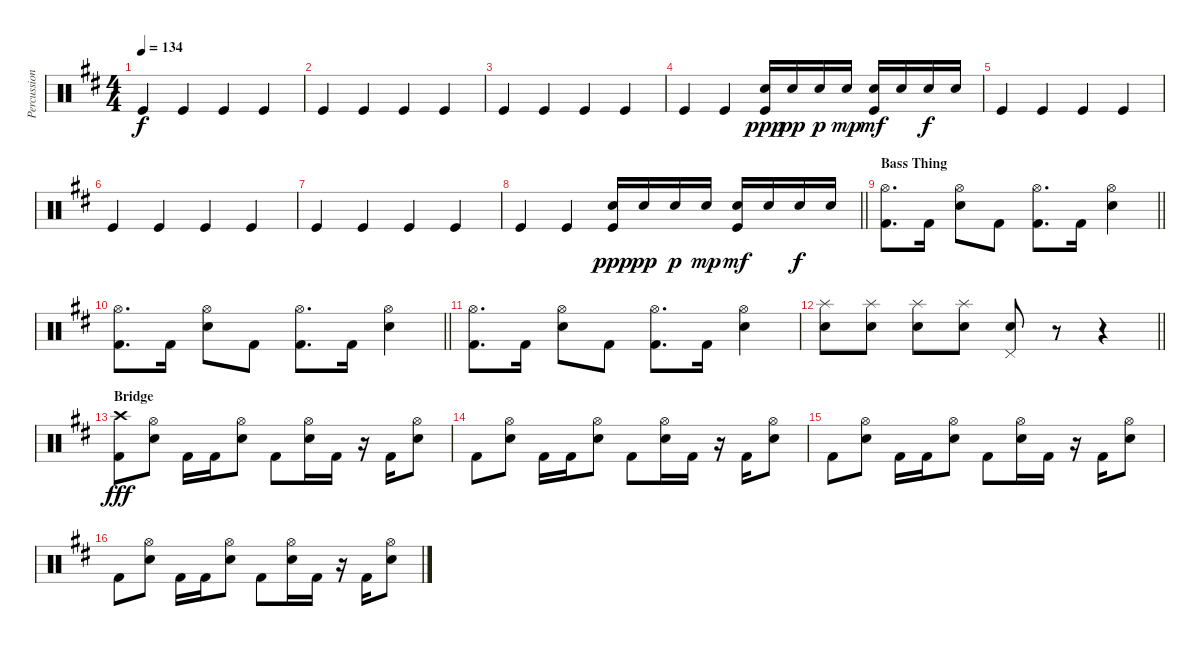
\track ("Percussion" "Percussion") {instrument percussion}
\staff {score}
\articulation defaults
\ts (4 4)
\tempo 134
\clef neutral
\ks bminor "Kick (hit)".4{dy f} "Kick (hit)".4 "Kick (hit)".4 "Kick (hit)".4
|
"Kick (hit)".4 "Kick (hit)".4 "Kick (hit)".4 "Kick (hit)".4 |
"Kick (hit)".4 "Kick (hit)".4 "Kick (hit)".4 "Kick (hit)".4 |
"Kick (hit)".4 "Kick (hit)".4 ("Snare (hit) 2" "Kick (hit)").16{dy ppp} "Snare (hit) 2".16{dy pp} "Snare (hit) 2".16{dy p} "Snare (hit) 2".16{dy mp} ("Snare (hit) 2" "Kick (hit)").16{dy mf} "Snare (hit) 2".16 "Snare (hit) 2".16{dy f} "Snare (hit) 2".16 |
"Kick (hit)".4 "Kick (hit)".4 "Kick (hit)".4 "Kick (hit)".4 |
"Kick (hit)".4 "Kick (hit)".4 "Kick (hit)".4 "Kick (hit)".4 |
"Kick (hit)".4 "Kick (hit)".4 "Kick (hit)".4 "Kick (hit)".4 |
\barLineRight lightlight "Kick (hit)".4 "Kick (hit)".4
("Snare (hit) 2" "Kick (hit)").16{dy ppp} "Snare (hit) 2".16{dy pp} "Snare (hit) 2".16{dy p} "Snare (hit) 2".16{dy mp} ("Snare (hit) 2" "Kick (hit)").16{dy mf} "Snare (hit) 2".16 "Snare (hit) 2".16{dy f} "Snare (hit) 2".16 |
\section ("" "Bass Thing")
\barLineRight lightlight
("Hi-Hat (open)" "Kick (hit) 2").8{d} "Kick (hit) 2".16 ("Hi-Hat (open)" "Snare (hit) 2").8 "Kick (hit) 2".8 ("Hi-Hat (open)" "Kick (hit) 2").8{d} "Kick (hit) 2".16 ("Hi-Hat (open)" "Snare (hit) 2").4 |
\barLineRight lightlight
("Hi-Hat (open)" "Kick (hit) 2").8{d} "Kick (hit) 2".16 ("Hi-Hat (open)" "Snare (hit) 2").8 "Kick (hit) 2".8 ("Hi-Hat (open)" "Kick (hit) 2").8{d} "Kick (hit) 2".16 ("Hi-Hat (open)" "Snare (hit) 2").4 |
("Hi-Hat (open)" "Kick (hit) 2").8{d} "Kick (hit) 2".16 ("Hi-Hat (open)" "Snare (hit) 2").8 "Kick (hit) 2".8 ("Hi-Hat (open)" "Kick (hit) 2").8{d} "Kick (hit) 2".16 ("Hi-Hat (open)" "Snare (hit) 2").4 |
\barLineRight lightlight
("Splash (hit)" "Snare (hit) 2").8 ("Splash (hit)" "Snare (hit) 2").8 ("Splash (hit)" "Snare (hit) 2").8 ("Splash (hit)" "Snare (hit) 2").8 ("Pedal Hi-Hat (hit)" "Snare (hit) 2").8 r.8 r.4 |
\section ("" "Bridge")
("Crash high (hit)" "Kick (hit) 2").8{dy fff} ("Hi-Hat (open)" "Snare (hit) 2").8 "Kick (hit) 2".16 "Kick (hit) 2".16 ("Hi-Hat (open)" "Snare (hit) 2").8 "Kick (hit) 2".8 ("Hi-Hat (open)" "Snare (hit) 2").16 "Kick (hit) 2".16 r.16 "Kick (hit) 2".16 ("Hi-Hat (open)" "Snare (hit) 2").8 |
"Kick (hit) 2".8 ("Hi-Hat (open)" "Snare (hit) 2").8 "Kick (hit) 2".16 "Kick (hit) 2".16 ("Hi-Hat (open)" "Snare (hit) 2").8 "Kick (hit) 2".8 ("Hi-Hat (open)" "Snare (hit) 2").16 "Kick (hit) 2".16 r.16 "Kick (hit) 2".16 ("Hi-Hat (open)" "Snare (hit) 2").8 |
"Kick (hit) 2".8 ("Hi-Hat (open)" "Snare (hit) 2").8 "Kick (hit) 2".16 "Kick (hit) 2".16 ("Hi-Hat (open)" "Snare (hit) 2").8 "Kick (hit) 2".8 ("Hi-Hat (open)" "Snare (hit) 2").16 "Kick (hit) 2".16 r.16 "Kick (hit) 2".16 ("Hi-Hat (open)" "Snare (hit) 2").8 |
"Kick (hit) 2".8 ("Hi-Hat (open)" "Snare (hit) 2").8 "Kick (hit) 2".16 "Kick (hit) 2".16 ("Hi-Hat (open)" "Snare (hit) 2").8 "Kick (hit) 2".8 ("Hi-Hat (open)" "Snare (hit) 2").16 "Kick (hit) 2".16 r.16 "Kick (hit) 2".16 ("Hi-Hat (open)" "Snare (hit) 2").8
